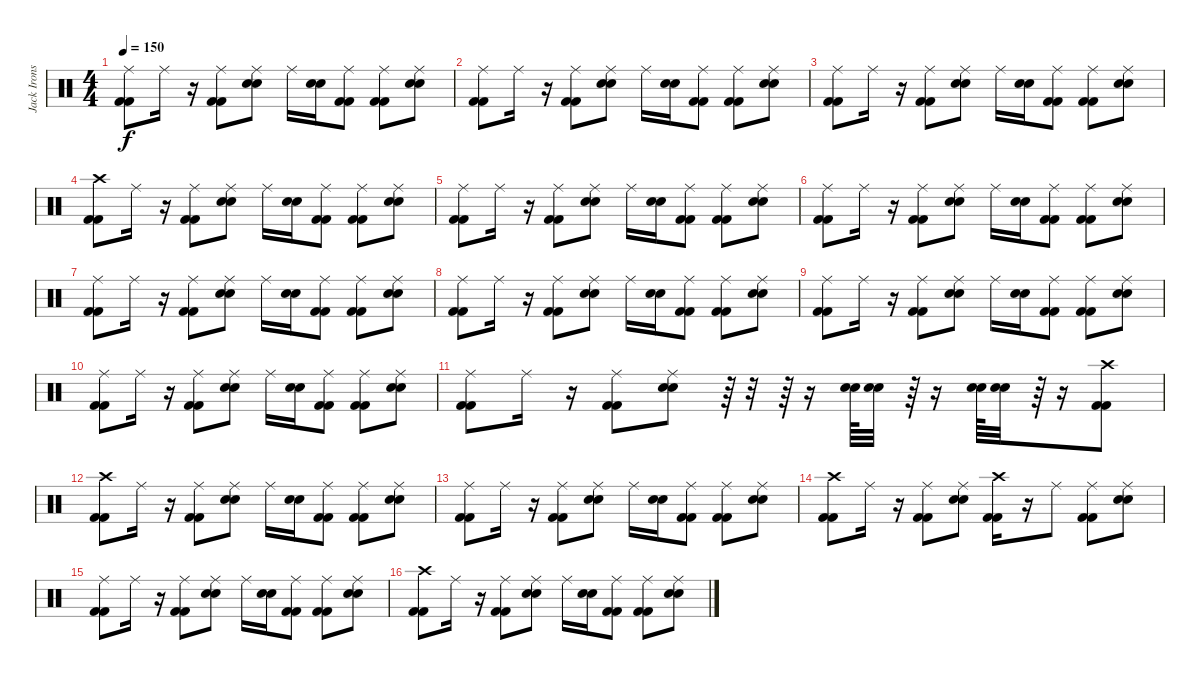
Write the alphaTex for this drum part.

\track ("Jack Irons" "Jack Irons") {instrument percussion}
\staff {score}
\articulation defaults
\ts (4 4)
\tempo 150
\clef neutral
\ks c
("Ride (middle)" "Kick (hit) 2" "Kick (hit) 2").8{dy f} "Ride (middle)".16 r.16 ("Ride (middle)" "Kick (hit) 2" "Kick (hit) 2").8 ("Ride (middle)" "Electric Snare (hit)" "Electric Snare (hit)").8 "Ride (middle)".16 ("Electric Snare (hit)" "Electric Snare (hit)").16 ("Ride (middle)" "Kick (hit) 2" "Kick (hit) 2").8 ("Ride (middle)" "Kick (hit) 2" "Kick (hit) 2").8 ("Ride (middle)" "Electric Snare (hit)" "Electric Snare (hit)").8 |
("Ride (middle)" "Kick (hit) 2" "Kick (hit) 2").8 "Ride (middle)".16 r.16 ("Ride (middle)" "Kick (hit) 2" "Kick (hit) 2").8 ("Ride (middle)" "Electric Snare (hit)" "Electric Snare (hit)").8 "Ride (middle)".16 ("Electric Snare (hit)" "Electric Snare (hit)").16 ("Ride (middle)" "Kick (hit) 2" "Kick (hit) 2").8 ("Ride (middle)" "Kick (hit) 2" "Kick (hit) 2").8 ("Ride (middle)" "Electric Snare (hit)" "Electric Snare (hit)").8 |
("Ride (middle)" "Kick (hit) 2" "Kick (hit) 2").8 "Ride (middle)".16 r.16 ("Ride (middle)" "Kick (hit) 2" "Kick (hit) 2").8 ("Ride (middle)" "Electric Snare (hit)" "Electric Snare (hit)").8 "Ride (middle)".16 ("Electric Snare (hit)" "Electric Snare (hit)").16 ("Ride (middle)" "Kick (hit) 2" "Kick (hit) 2").8 ("Ride (middle)" "Kick (hit) 2" "Kick (hit) 2").8 ("Ride (middle)" "Electric Snare (hit)" "Electric Snare (hit)").8 |
("Crash high (hit)" "Kick (hit) 2" "Kick (hit) 2").8 "Ride (middle)".16 r.16 ("Ride (middle)" "Kick (hit) 2" "Kick (hit) 2").8 ("Ride (middle)" "Electric Snare (hit)" "Electric Snare (hit)").8 "Ride (middle)".16 ("Electric Snare (hit)" "Electric Snare (hit)").16 ("Ride (middle)" "Kick (hit) 2" "Kick (hit) 2").8 ("Ride (middle)" "Kick (hit) 2" "Kick (hit) 2").8 ("Ride (middle)" "Electric Snare (hit)" "Electric Snare (hit)").8 |
("Ride (middle)" "Kick (hit) 2" "Kick (hit) 2").8 "Ride (middle)".16 r.16 ("Ride (middle)" "Kick (hit) 2" "Kick (hit) 2").8 ("Ride (middle)" "Electric Snare (hit)" "Electric Snare (hit)").8 "Ride (middle)".16 ("Electric Snare (hit)" "Electric Snare (hit)").16 ("Ride (middle)" "Kick (hit) 2" "Kick (hit) 2").8 ("Ride (middle)" "Kick (hit) 2" "Kick (hit) 2").8 ("Ride (middle)" "Electric Snare (hit)" "Electric Snare (hit)").8 |
("Ride (middle)" "Kick (hit) 2" "Kick (hit) 2").8 "Ride (middle)".16 r.16 ("Ride (middle)" "Kick (hit) 2" "Kick (hit) 2").8 ("Ride (middle)" "Electric Snare (hit)" "Electric Snare (hit)").8 "Ride (middle)".16 ("Electric Snare (hit)" "Electric Snare (hit)").16 ("Ride (middle)" "Kick (hit) 2" "Kick (hit) 2").8 ("Ride (middle)" "Kick (hit) 2" "Kick (hit) 2").8 ("Ride (middle)" "Electric Snare (hit)" "Electric Snare (hit)").8 |
("Ride (middle)" "Kick (hit) 2" "Kick (hit) 2").8 "Ride (middle)".16 r.16 ("Ride (middle)" "Kick (hit) 2" "Kick (hit) 2").8 ("Ride (middle)" "Electric Snare (hit)" "Electric Snare (hit)").8 "Ride (middle)".16 ("Electric Snare (hit)" "Electric Snare (hit)").16 ("Ride (middle)" "Kick (hit) 2" "Kick (hit) 2").8 ("Ride (middle)" "Kick (hit) 2" "Kick (hit) 2").8 ("Ride (middle)" "Electric Snare (hit)" "Electric Snare (hit)").8 |
("Ride (middle)" "Kick (hit) 2" "Kick (hit) 2").8 "Ride (middle)".16 r.16 ("Ride (middle)" "Kick (hit) 2" "Kick (hit) 2").8 ("Ride (middle)" "Electric Snare (hit)" "Electric Snare (hit)").8 "Ride (middle)".16 ("Electric Snare (hit)" "Electric Snare (hit)").16 ("Ride (middle)" "Kick (hit) 2" "Kick (hit) 2").8 ("Ride (middle)" "Kick (hit) 2" "Kick (hit) 2").8 ("Ride (middle)" "Electric Snare (hit)" "Electric Snare (hit)").8 |
("Ride (middle)" "Kick (hit) 2" "Kick (hit) 2").8 "Ride (middle)".16 r.16 ("Ride (middle)" "Kick (hit) 2" "Kick (hit) 2").8 ("Ride (middle)" "Electric Snare (hit)" "Electric Snare (hit)").8 "Ride (middle)".16 ("Electric Snare (hit)" "Electric Snare (hit)").16 ("Ride (middle)" "Kick (hit) 2" "Kick (hit) 2").8 ("Ride (middle)" "Kick (hit) 2" "Kick (hit) 2").8 ("Ride (middle)" "Electric Snare (hit)" "Electric Snare (hit)").8 |
("Ride (middle)" "Kick (hit) 2" "Kick (hit) 2").8 "Ride (middle)".16 r.16 ("Ride (middle)" "Kick (hit) 2" "Kick (hit) 2").8 ("Ride (middle)" "Electric Snare (hit)" "Electric Snare (hit)").8 "Ride (middle)".16 ("Electric Snare (hit)" "Electric Snare (hit)").16 ("Ride (middle)" "Kick (hit) 2" "Kick (hit) 2").8 ("Ride (middle)" "Kick (hit) 2" "Kick (hit) 2").8 ("Ride (middle)" "Electric Snare (hit)" "Electric Snare (hit)").8 |
("Ride (middle)" "Kick (hit) 2" "Kick (hit) 2").8 "Ride (middle)".16 r.16 ("Ride (middle)" "Kick (hit) 2" "Kick (hit) 2").8 ("Ride (middle)" "Electric Snare (hit)" "Electric Snare (hit)").8 r.64 r.32 r.64 r.16 ("Electric Snare (hit)" "Electric Snare (hit)").64 ("Electric Snare (hit)" "Electric Snare (hit)").32 r.64 r.16 ("Electric Snare (hit)" "Electric Snare (hit)").64 ("Electric Snare (hit)" "Electric Snare (hit)").32 r.64 r.16 ("Crash high (hit)" "Kick (hit) 2" "Kick (hit) 2").8 |
("Crash high (hit)" "Kick (hit) 2" "Kick (hit) 2").8 "Ride (middle)".16 r.16 ("Ride (middle)" "Kick (hit) 2" "Kick (hit) 2").8 ("Ride (middle)" "Electric Snare (hit)" "Electric Snare (hit)").8 "Ride (middle)".16 ("Electric Snare (hit)" "Electric Snare (hit)").16 ("Ride (middle)" "Kick (hit) 2" "Kick (hit) 2").8 ("Ride (middle)" "Kick (hit) 2" "Kick (hit) 2").8 ("Ride (middle)" "Electric Snare (hit)" "Electric Snare (hit)").8 |
("Ride (middle)" "Kick (hit) 2" "Kick (hit) 2").8 "Ride (middle)".16 r.16 ("Ride (middle)" "Kick (hit) 2" "Kick (hit) 2").8 ("Ride (middle)" "Electric Snare (hit)" "Electric Snare (hit)").8 "Ride (middle)".16 ("Electric Snare (hit)" "Electric Snare (hit)").16 ("Ride (middle)" "Kick (hit) 2" "Kick (hit) 2").8 ("Ride (middle)" "Kick (hit) 2" "Kick (hit) 2").8 ("Ride (middle)" "Electric Snare (hit)" "Electric Snare (hit)").8 |
("Crash high (hit)" "Kick (hit) 2" "Kick (hit) 2").8 "Ride (middle)".16 r.16 ("Ride (middle)" "Kick (hit) 2" "Kick (hit) 2").8 ("Ride (middle)" "Electric Snare (hit)" "Electric Snare (hit)").8 ("Crash high (hit)" "Kick (hit) 2" "Kick (hit) 2").16 r.16 "Ride (middle)".8 ("Ride (middle)" "Kick (hit) 2" "Kick (hit) 2").8 ("Ride (middle)" "Electric Snare (hit)" "Electric Snare (hit)").8 |
("Ride (middle)" "Kick (hit) 2" "Kick (hit) 2").8 "Ride (middle)".16 r.16 ("Ride (middle)" "Kick (hit) 2" "Kick (hit) 2").8 ("Ride (middle)" "Electric Snare (hit)" "Electric Snare (hit)").8 "Ride (middle)".16 ("Electric Snare (hit)" "Electric Snare (hit)").16 ("Ride (middle)" "Kick (hit) 2" "Kick (hit) 2").8 ("Ride (middle)" "Kick (hit) 2" "Kick (hit) 2").8 ("Ride (middle)" "Electric Snare (hit)" "Electric Snare (hit)").8 |
("Crash high (hit)" "Kick (hit) 2" "Kick (hit) 2").8 "Ride (middle)".16 r.16 ("Ride (middle)" "Kick (hit) 2" "Kick (hit) 2").8 ("Ride (middle)" "Electric Snare (hit)" "Electric Snare (hit)").8 "Ride (middle)".16 ("Electric Snare (hit)" "Electric Snare (hit)").16 ("Ride (middle)" "Kick (hit) 2" "Kick (hit) 2").8 ("Ride (middle)" "Kick (hit) 2" "Kick (hit) 2").8 ("Ride (middle)" "Electric Snare (hit)" "Electric Snare (hit)").8
